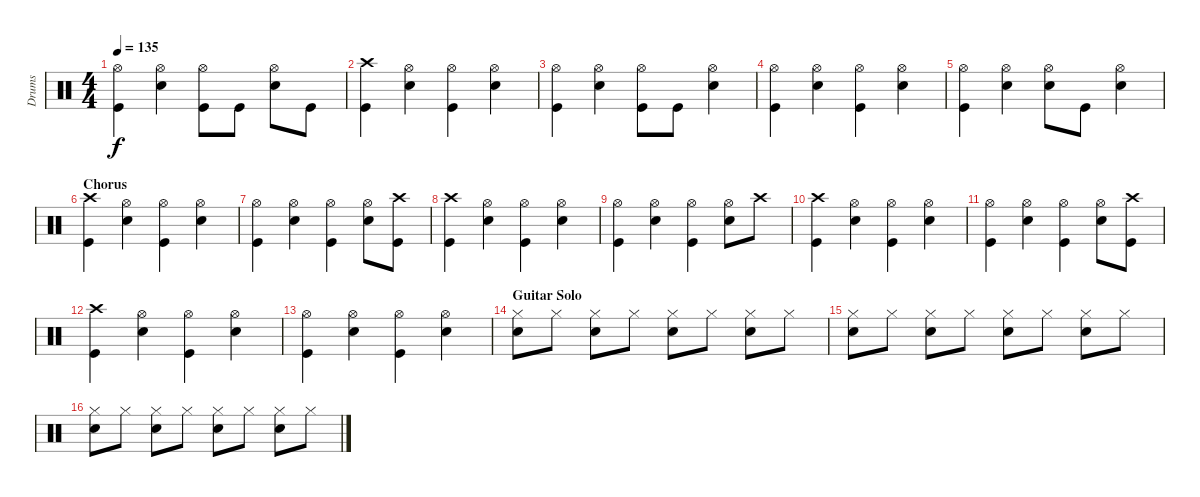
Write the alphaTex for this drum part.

\track ("Drums" "Drums") {instrument percussion}
\staff {score}
\articulation defaults
\ts (4 4)
\tempo 135
\clef neutral
\ks c
("Hi-Hat (open)" "Kick (hit)").4{dy f} ("Hi-Hat (open)" "Snare (hit) 2").4 ("Hi-Hat (open)" "Kick (hit)").8 "Kick (hit)".8 ("Hi-Hat (open)" "Snare (hit) 2").8 "Kick (hit)".8 |
("Crash high (hit)" "Kick (hit)").4 ("Hi-Hat (open)" "Snare (hit) 2").4 ("Hi-Hat (open)" "Kick (hit)").4 ("Hi-Hat (open)" "Snare (hit) 2").4 |
("Hi-Hat (open)" "Kick (hit)").4 ("Hi-Hat (open)" "Snare (hit) 2").4 ("Hi-Hat (open)" "Kick (hit)").8 "Kick (hit)".8 ("Hi-Hat (open)" "Snare (hit) 2").4 |
("Hi-Hat (open)" "Kick (hit)").4 ("Hi-Hat (open)" "Snare (hit) 2").4 ("Hi-Hat (open)" "Kick (hit)").4 ("Hi-Hat (open)" "Snare (hit) 2").4 |
("Hi-Hat (open)" "Kick (hit)").4 ("Hi-Hat (open)" "Snare (hit) 2").4 ("Hi-Hat (open)" "Snare (hit) 2").8 "Kick (hit)".8 ("Hi-Hat (open)" "Snare (hit) 2").4 |
\section ("" "Chorus")
("Crash high (hit)" "Kick (hit)").4 ("Hi-Hat (open)" "Snare (hit) 2").4 ("Hi-Hat (open)" "Kick (hit)").4 ("Hi-Hat (open)" "Snare (hit) 2").4 |
("Hi-Hat (open)" "Kick (hit)").4 ("Hi-Hat (open)" "Snare (hit) 2").4 ("Hi-Hat (open)" "Kick (hit)").4 ("Hi-Hat (open)" "Snare (hit) 2").8 ("Crash high (hit)" "Kick (hit)").8 |
("Crash high (hit)" "Kick (hit)").4 ("Hi-Hat (open)" "Snare (hit) 2").4 ("Hi-Hat (open)" "Kick (hit)").4 ("Hi-Hat (open)" "Snare (hit) 2").4 |
("Hi-Hat (open)" "Kick (hit)").4 ("Hi-Hat (open)" "Snare (hit) 2").4 ("Hi-Hat (open)" "Kick (hit)").4 ("Hi-Hat (open)" "Snare (hit) 2").8 "Crash high (hit)".8 |
("Crash high (hit)" "Kick (hit)").4 ("Hi-Hat (open)" "Snare (hit) 2").4 ("Hi-Hat (open)" "Kick (hit)").4 ("Hi-Hat (open)" "Snare (hit) 2").4 |
("Hi-Hat (open)" "Kick (hit)").4 ("Hi-Hat (open)" "Snare (hit) 2").4 ("Hi-Hat (open)" "Kick (hit)").4 ("Hi-Hat (open)" "Snare (hit) 2").8 ("Crash high (hit)" "Kick (hit)").8 |
("Crash high (hit)" "Kick (hit)").4 ("Hi-Hat (open)" "Snare (hit) 2").4 ("Hi-Hat (open)" "Kick (hit)").4 ("Hi-Hat (open)" "Snare (hit) 2").4 |
("Hi-Hat (open)" "Kick (hit)").4 ("Hi-Hat (open)" "Snare (hit) 2").4 ("Hi-Hat (open)" "Kick (hit)").4 ("Hi-Hat (open)" "Snare (hit) 2").4 |
\section ("" "Guitar Solo")
("Snare (hit) 2" "Hi-Hat (closed)").8 "Hi-Hat (closed)".8 ("Snare (hit) 2" "Hi-Hat (closed)").8 "Hi-Hat (closed)".8 ("Snare (hit) 2" "Hi-Hat (closed)").8 "Hi-Hat (closed)".8 ("Snare (hit) 2" "Hi-Hat (closed)").8 "Hi-Hat (closed)".8 |
("Snare (hit) 2" "Hi-Hat (closed)").8 "Hi-Hat (closed)".8 ("Snare (hit) 2" "Hi-Hat (closed)").8 "Hi-Hat (closed)".8 ("Snare (hit) 2" "Hi-Hat (closed)").8 "Hi-Hat (closed)".8 ("Snare (hit) 2" "Hi-Hat (closed)").8 "Hi-Hat (closed)".8 |
("Snare (hit) 2" "Hi-Hat (closed)").8 "Hi-Hat (closed)".8 ("Snare (hit) 2" "Hi-Hat (closed)").8 "Hi-Hat (closed)".8 ("Snare (hit) 2" "Hi-Hat (closed)").8 "Hi-Hat (closed)".8 ("Snare (hit) 2" "Hi-Hat (closed)").8 "Hi-Hat (closed)".8
